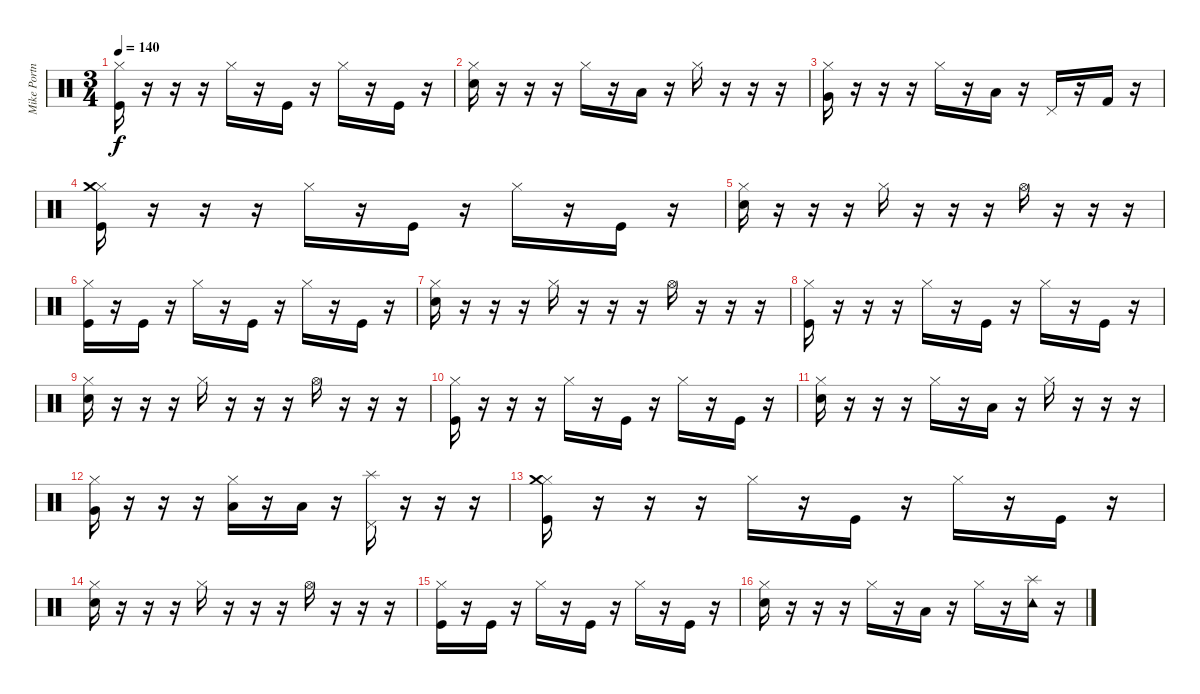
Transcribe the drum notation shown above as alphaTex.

\track ("Mike Portnoy" "Mike Portn") {instrument percussion}
\staff {score}
\articulation defaults
\ts (3 4)
\tempo 140
\clef neutral
\ks c
("Kick (hit)" "Hi-Hat (closed)").16{dy f} r.16 r.16 r.16 "Hi-Hat (closed)".16 r.16 "Kick (hit)".16 r.16 "Hi-Hat (closed)".16 r.16 "Kick (hit)".16 r.16 |
("Electric Snare (hit)" "Hi-Hat (closed)").16 r.16 r.16 r.16 "Hi-Hat (closed)".16 r.16 "Low Tom (hit)".16 r.16 "Hi-Hat (closed)".16 r.16 r.16 r.16 |
("Very Low Tom (hit)" "Hi-Hat (closed)").16 r.16 r.16 r.16 "Hi-Hat (closed)".16 r.16 "Low Floor Tom (hit)".16 r.16 "Pedal Hi-Hat (hit)".16 r.16 "Kick (hit) 2".16 r.16 |
("Kick (hit)" "Hi-Hat (closed)" "Crash medium (hit)").16 r.16 r.16 r.16 "Hi-Hat (closed)".16 r.16 "Kick (hit)".16 r.16 "Hi-Hat (closed)".16 r.16 "Kick (hit)".16 r.16 |
("Electric Snare (hit)" "Hi-Hat (closed)").16 r.16 r.16 r.16 "Hi-Hat (closed)".16 r.16 r.16 r.16 "Hi-Hat (open)".16 r.16 r.16 r.16 |
("Kick (hit)" "Hi-Hat (closed)").16 r.16 "Kick (hit)".16 r.16 "Hi-Hat (closed)".16 r.16 "Kick (hit)".16 r.16 "Hi-Hat (closed)".16 r.16 "Kick (hit)".16 r.16 |
("Electric Snare (hit)" "Hi-Hat (closed)").16 r.16 r.16 r.16 "Hi-Hat (closed)".16 r.16 r.16 r.16 "Hi-Hat (open)".16 r.16 r.16 r.16 |
("Kick (hit)" "Hi-Hat (closed)").16 r.16 r.16 r.16 "Hi-Hat (closed)".16 r.16 "Kick (hit)".16 r.16 "Hi-Hat (closed)".16 r.16 "Kick (hit)".16 r.16 |
("Electric Snare (hit)" "Hi-Hat (closed)").16 r.16 r.16 r.16 "Hi-Hat (closed)".16 r.16 r.16 r.16 "Hi-Hat (open)".16 r.16 r.16 r.16 |
("Kick (hit)" "Hi-Hat (closed)").16 r.16 r.16 r.16 "Hi-Hat (closed)".16 r.16 "Kick (hit)".16 r.16 "Hi-Hat (closed)".16 r.16 "Kick (hit)".16 r.16 |
("Electric Snare (hit)" "Hi-Hat (closed)").16 r.16 r.16 r.16 "Hi-Hat (closed)".16 r.16 "Low Tom (hit)".16 r.16 "Hi-Hat (closed)".16 r.16 r.16 r.16 |
("Very Low Tom (hit)" "Hi-Hat (closed)").16 r.16 r.16 r.16 ("Low Floor Tom (hit)" "Hi-Hat (closed)").16 r.16 "Low Floor Tom (hit)".16 r.16 ("Splash (hit)" "Pedal Hi-Hat (hit)").16 r.16 r.16 r.16 |
("Kick (hit)" "Hi-Hat (closed)" "Crash medium (hit)").16 r.16 r.16 r.16 "Hi-Hat (closed)".16 r.16 "Kick (hit)".16 r.16 "Hi-Hat (closed)".16 r.16 "Kick (hit)".16 r.16 |
("Electric Snare (hit)" "Hi-Hat (closed)").16 r.16 r.16 r.16 "Hi-Hat (closed)".16 r.16 r.16 r.16 "Hi-Hat (open)".16 r.16 r.16 r.16 |
("Kick (hit)" "Hi-Hat (closed)").16 r.16 "Kick (hit)".16 r.16 "Hi-Hat (closed)".16 r.16 "Kick (hit)".16 r.16 "Hi-Hat (closed)".16 r.16 "Kick (hit)".16 r.16 |
("Electric Snare (hit)" "Hi-Hat (closed)").16 r.16 r.16 r.16 "Hi-Hat (closed)".16 r.16 "Low Tom (hit)".16 r.16 "Hi-Hat (closed)".16 r.16 ("Splash (hit)" "Tambourine (hit)").16 r.16
